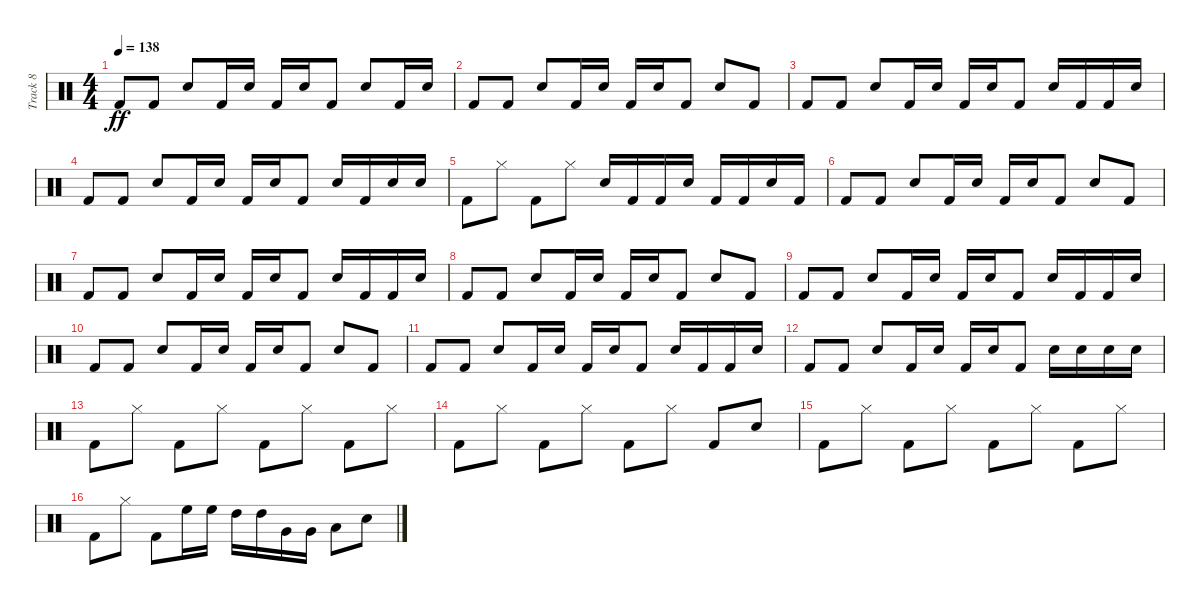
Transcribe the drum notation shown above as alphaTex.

\track ("Track 8" "Track 8") {instrument percussion}
\staff {score}
\articulation defaults
\ts (4 4)
\tempo 138
\clef neutral
\ks c "Kick (hit) 2".8{dy ff} "Kick (hit) 2".8 "Snare (hit) 2".8 "Kick (hit) 2".16 "Snare (hit) 2".16 "Kick (hit) 2".16 "Snare (hit) 2".16 "Kick (hit) 2".8 "Snare (hit) 2".8 "Kick (hit) 2".16 "Snare (hit) 2".16
|
"Kick (hit) 2".8 "Kick (hit) 2".8 "Snare (hit) 2".8 "Kick (hit) 2".16 "Snare (hit) 2".16 "Kick (hit) 2".16 "Snare (hit) 2".16 "Kick (hit) 2".8 "Snare (hit) 2".8 "Kick (hit) 2".8 |
"Kick (hit) 2".8 "Kick (hit) 2".8 "Snare (hit) 2".8 "Kick (hit) 2".16 "Snare (hit) 2".16 "Kick (hit) 2".16 "Snare (hit) 2".16 "Kick (hit) 2".8 "Snare (hit) 2".16 "Kick (hit) 2".16 "Kick (hit) 2".16 "Snare (hit) 2".16 |
"Kick (hit) 2".8 "Kick (hit) 2".8 "Snare (hit) 2".8 "Kick (hit) 2".16 "Snare (hit) 2".16 "Kick (hit) 2".16 "Snare (hit) 2".16 "Kick (hit) 2".8 "Snare (hit) 2".16 "Kick (hit) 2".16 "Snare (hit) 2".16 "Snare (hit) 2".16 |
"Kick (hit) 2".8 "Hi-Hat (closed)".8 "Kick (hit) 2".8 "Hi-Hat (closed)".8 "Snare (hit) 2".16 "Kick (hit) 2".16 "Kick (hit) 2".16 "Snare (hit) 2".16 "Kick (hit) 2".16 "Kick (hit) 2".16 "Snare (hit) 2".16 "Kick (hit) 2".16 |
"Kick (hit) 2".8 "Kick (hit) 2".8 "Snare (hit) 2".8 "Kick (hit) 2".16 "Snare (hit) 2".16 "Kick (hit) 2".16 "Snare (hit) 2".16 "Kick (hit) 2".8 "Snare (hit) 2".8 "Kick (hit) 2".8 |
"Kick (hit) 2".8 "Kick (hit) 2".8 "Snare (hit) 2".8 "Kick (hit) 2".16 "Snare (hit) 2".16 "Kick (hit) 2".16 "Snare (hit) 2".16 "Kick (hit) 2".8 "Snare (hit) 2".16 "Kick (hit) 2".16 "Kick (hit) 2".16 "Snare (hit) 2".16 |
"Kick (hit) 2".8 "Kick (hit) 2".8 "Snare (hit) 2".8 "Kick (hit) 2".16 "Snare (hit) 2".16 "Kick (hit) 2".16 "Snare (hit) 2".16 "Kick (hit) 2".8 "Snare (hit) 2".8 "Kick (hit) 2".8 |
"Kick (hit) 2".8 "Kick (hit) 2".8 "Snare (hit) 2".8 "Kick (hit) 2".16 "Snare (hit) 2".16 "Kick (hit) 2".16 "Snare (hit) 2".16 "Kick (hit) 2".8 "Snare (hit) 2".16 "Kick (hit) 2".16 "Kick (hit) 2".16 "Snare (hit) 2".16 |
"Kick (hit) 2".8 "Kick (hit) 2".8 "Snare (hit) 2".8 "Kick (hit) 2".16 "Snare (hit) 2".16 "Kick (hit) 2".16 "Snare (hit) 2".16 "Kick (hit) 2".8 "Snare (hit) 2".8 "Kick (hit) 2".8 |
"Kick (hit) 2".8 "Kick (hit) 2".8 "Snare (hit) 2".8 "Kick (hit) 2".16 "Snare (hit) 2".16 "Kick (hit) 2".16 "Snare (hit) 2".16 "Kick (hit) 2".8 "Snare (hit) 2".16 "Kick (hit) 2".16 "Kick (hit) 2".16 "Snare (hit) 2".16 |
"Kick (hit) 2".8 "Kick (hit) 2".8 "Snare (hit) 2".8 "Kick (hit) 2".16 "Snare (hit) 2".16 "Kick (hit) 2".16 "Snare (hit) 2".16 "Kick (hit) 2".8 "Snare (hit) 2".16 "Snare (hit) 2".16 "Snare (hit) 2".16 "Snare (hit) 2".16 |
"Kick (hit) 2".8 "Hi-Hat (closed)".8 "Kick (hit) 2".8 "Hi-Hat (closed)".8 "Kick (hit) 2".8 "Hi-Hat (closed)".8 "Kick (hit) 2".8 "Hi-Hat (closed)".8 |
"Kick (hit) 2".8 "Hi-Hat (closed)".8 "Kick (hit) 2".8 "Hi-Hat (closed)".8 "Kick (hit) 2".8 "Hi-Hat (closed)".8 "Kick (hit) 2".8 "Snare (hit) 2".8 |
"Kick (hit) 2".8 "Hi-Hat (closed)".8 "Kick (hit) 2".8 "Hi-Hat (closed)".8 "Kick (hit) 2".8 "Hi-Hat (closed)".8 "Kick (hit) 2".8 "Hi-Hat (closed)".8 |
"Kick (hit) 2".8 "Hi-Hat (closed)".8 "Kick (hit) 2".8 "High Floor Tom (hit)".16 "High Floor Tom (hit)".16 "High Tom (hit)".16 "High Tom (hit)".16 "Very Low Tom (hit)".16 "Very Low Tom (hit)".16 "Low Tom (hit)".8 "Snare (hit) 2".8
